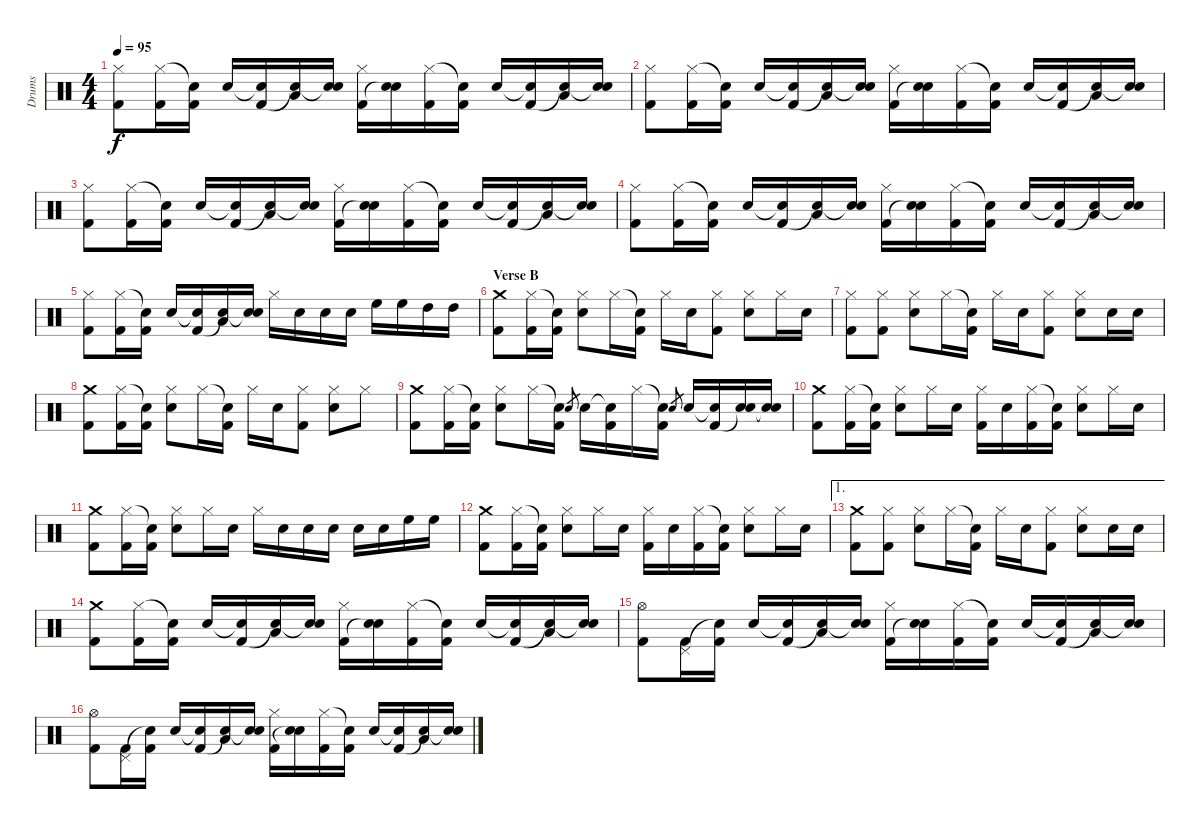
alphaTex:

\track ("Drums" "Drums") {instrument percussion}
\staff {score}
\articulation defaults
\ts (4 4)
\tempo 95
\clef neutral
\ks c
("Hi-Hat (closed)" "Kick (hit) 2").8{dy f} ("Hi-Hat (closed)" "Kick (hit) 2").16 ("Snare (hit)"{t} "Kick (hit) 2").16 "Electric Snare (hit)".16 ("Snare (hit)"{t} "Kick (hit) 2").16 ("Low Tom (hit)" "Snare (hit)"{t}).16 ("Electric Snare (hit)" "Snare (hit)"{t}).16 ("Hi-Hat (closed)" "Kick (hit) 2").16 ("Electric Snare (hit)" "Snare (hit)"{t}).16 ("Hi-Hat (closed)" "Kick (hit) 2").16 ("Snare (hit)"{t} "Kick (hit) 2").16 "Electric Snare (hit)".16 ("Snare (hit)"{t} "Kick (hit) 2").16 ("Low Tom (hit)" "Snare (hit)"{t}).16 ("Electric Snare (hit)" "Snare (hit)"{t}).16 |
("Hi-Hat (closed)" "Kick (hit) 2").8 ("Hi-Hat (closed)" "Kick (hit) 2").16 ("Snare (hit)"{t} "Kick (hit) 2").16 "Electric Snare (hit)".16 ("Snare (hit)"{t} "Kick (hit) 2").16 ("Low Tom (hit)" "Snare (hit)"{t}).16 ("Electric Snare (hit)" "Snare (hit)"{t}).16 ("Hi-Hat (closed)" "Kick (hit) 2").16 ("Electric Snare (hit)" "Snare (hit)"{t}).16 ("Hi-Hat (closed)" "Kick (hit) 2").16 ("Snare (hit)"{t} "Kick (hit) 2").16 "Electric Snare (hit)".16 ("Snare (hit)"{t} "Kick (hit) 2").16 ("Low Tom (hit)" "Snare (hit)"{t}).16 ("Electric Snare (hit)" "Snare (hit)"{t}).16 |
("Hi-Hat (closed)" "Kick (hit) 2").8 ("Hi-Hat (closed)" "Kick (hit) 2").16 ("Snare (hit)"{t} "Kick (hit) 2").16 "Electric Snare (hit)".16 ("Snare (hit)"{t} "Kick (hit) 2").16 ("Low Tom (hit)" "Snare (hit)"{t}).16 ("Electric Snare (hit)" "Snare (hit)"{t}).16 ("Hi-Hat (closed)" "Kick (hit) 2").16 ("Electric Snare (hit)" "Snare (hit)"{t}).16 ("Hi-Hat (closed)" "Kick (hit) 2").16 ("Snare (hit)"{t} "Kick (hit) 2").16 "Electric Snare (hit)".16 ("Snare (hit)"{t} "Kick (hit) 2").16 ("Low Tom (hit)" "Snare (hit)"{t}).16 ("Electric Snare (hit)" "Snare (hit)"{t}).16 |
("Hi-Hat (closed)" "Kick (hit) 2").8 ("Hi-Hat (closed)" "Kick (hit) 2").16 ("Snare (hit)"{t} "Kick (hit) 2").16 "Electric Snare (hit)".16 ("Snare (hit)"{t} "Kick (hit) 2").16 ("Low Tom (hit)" "Snare (hit)"{t}).16 ("Electric Snare (hit)" "Snare (hit)"{t}).16 ("Hi-Hat (closed)" "Kick (hit) 2").16 ("Electric Snare (hit)" "Snare (hit)"{t}).16 ("Hi-Hat (closed)" "Kick (hit) 2").16 ("Snare (hit)"{t} "Kick (hit) 2").16 "Electric Snare (hit)".16 ("Snare (hit)"{t} "Kick (hit) 2").16 ("Low Tom (hit)" "Snare (hit)"{t}).16 ("Electric Snare (hit)" "Snare (hit)"{t}).16 |
("Hi-Hat (closed)" "Kick (hit) 2").8 ("Hi-Hat (closed)" "Kick (hit) 2").16 ("Snare (hit)"{t} "Kick (hit) 2").16 "Electric Snare (hit)".16 ("Snare (hit)"{t} "Kick (hit) 2").16 ("Low Tom (hit)" "Snare (hit)"{t}).16 ("Electric Snare (hit)" "Snare (hit)"{t}).16 "Hi-Hat (closed)".16 "Electric Snare (hit)".16 "Electric Snare (hit)".16 "Electric Snare (hit)".16 "High Floor Tom (hit)".16 "High Floor Tom (hit)".16 "High Tom (hit)".16 "High Tom (hit)".16 |
\section ("" "Verse B")
("Crash medium (hit)" "Kick (hit) 2").8 ("Hi-Hat (closed)" "Kick (hit) 2").16 ("Snare (hit)"{t} "Kick (hit) 2").16 ("Hi-Hat (closed)" "Electric Snare (hit)").8 "Hi-Hat (closed)".16 ("Snare (hit)"{t} "Kick (hit) 2").16 "Hi-Hat (closed)".16 "Electric Snare (hit)".16 ("Hi-Hat (closed)" "Kick (hit) 2").8 ("Hi-Hat (closed)" "Electric Snare (hit)").8 "Hi-Hat (closed)".16 "Electric Snare (hit)".16 |
("Hi-Hat (closed)" "Kick (hit) 2").8 ("Hi-Hat (closed)" "Kick (hit) 2").8 ("Hi-Hat (closed)" "Electric Snare (hit)").8 "Hi-Hat (closed)".16 ("Snare (hit)"{t} "Kick (hit) 2").16 "Hi-Hat (closed)".16 "Electric Snare (hit)".16 ("Hi-Hat (closed)" "Kick (hit) 2").8 ("Hi-Hat (closed)" "Electric Snare (hit)").8 "Electric Snare (hit)".16 "Electric Snare (hit)".16 |
("Crash medium (hit)" "Kick (hit) 2").8 ("Hi-Hat (closed)" "Kick (hit) 2").16 ("Snare (hit)"{t} "Kick (hit) 2").16 ("Hi-Hat (closed)" "Electric Snare (hit)").8 "Hi-Hat (closed)".16 ("Snare (hit)"{t} "Kick (hit) 2").16 "Hi-Hat (closed)".16 "Electric Snare (hit)".16 ("Hi-Hat (closed)" "Kick (hit) 2").8 ("Hi-Hat (closed)" "Electric Snare (hit)").8 "Hi-Hat (closed)".8 |
("Crash medium (hit)" "Kick (hit) 2").8 ("Hi-Hat (closed)" "Kick (hit) 2").16 ("Snare (hit)"{t} "Kick (hit) 2").16 ("Hi-Hat (closed)" "Electric Snare (hit)").8 "Hi-Hat (closed)".16 ("Snare (hit)"{t} "Kick (hit) 2").16 "Electric Snare (hit)".8{gr} "Electric Snare (hit)".16 ("Electric Snare (hit)"{t} "Kick (hit) 2").16 "Hi-Hat (closed)".16 ("Snare (hit)"{t} "Kick (hit) 2").16 "Electric Snare (hit)".8{gr} "Electric Snare (hit)".16 ("Snare (hit)"{t} "Kick (hit) 2").16 ("Electric Snare (hit)" "Snare (hit)"{t}).16 ("Electric Snare (hit)" "Snare (hit)"{t}).16 |
("Crash medium (hit)" "Kick (hit) 2").8 ("Hi-Hat (closed)" "Kick (hit) 2").16 ("Snare (hit)"{t} "Kick (hit) 2").16 ("Hi-Hat (closed)" "Electric Snare (hit)").8 "Hi-Hat (closed)".16 "Electric Snare (hit)".16 ("Hi-Hat (closed)" "Kick (hit) 2").16 "Electric Snare (hit)".16 ("Hi-Hat (closed)" "Kick (hit) 2").16 ("Snare (hit)"{t} "Kick (hit) 2").16 ("Hi-Hat (closed)" "Electric Snare (hit)").8 "Hi-Hat (closed)".16 "Electric Snare (hit)".16 |
("Crash medium (hit)" "Kick (hit) 2").8 ("Hi-Hat (closed)" "Kick (hit) 2").16 ("Snare (hit)"{t} "Kick (hit) 2").16 ("Hi-Hat (closed)" "Electric Snare (hit)").8 "Hi-Hat (closed)".16 "Electric Snare (hit)".16 "Hi-Hat (closed)".16 "Electric Snare (hit)".16 "Electric Snare (hit)".16 "Electric Snare (hit)".16 "Electric Snare (hit)".16 "Electric Snare (hit)".16 "High Floor Tom (hit)".16 "High Floor Tom (hit)".16 |
("Crash medium (hit)" "Kick (hit) 2").8 ("Hi-Hat (closed)" "Kick (hit) 2").16 ("Snare (hit)"{t} "Kick (hit) 2").16 ("Hi-Hat (closed)" "Electric Snare (hit)").8 "Hi-Hat (closed)".16 "Electric Snare (hit)".16 ("Hi-Hat (closed)" "Kick (hit) 2").16 "Electric Snare (hit)".16 ("Hi-Hat (closed)" "Kick (hit) 2").16 ("Snare (hit)"{t} "Kick (hit) 2").16 ("Hi-Hat (closed)" "Electric Snare (hit)").8 "Hi-Hat (closed)".16 "Electric Snare (hit)".16 |
\ae 1
("Crash medium (hit)" "Kick (hit) 2").8 ("Hi-Hat (closed)" "Kick (hit) 2").8 ("Hi-Hat (closed)" "Electric Snare (hit)").8 "Hi-Hat (closed)".16 ("Snare (hit)"{t} "Kick (hit) 2").16 "Hi-Hat (closed)".16 "Electric Snare (hit)".16 ("Hi-Hat (closed)" "Kick (hit) 2").8 ("Hi-Hat (closed)" "Electric Snare (hit)").8 "Electric Snare (hit)".16 "Electric Snare (hit)".16 |
("Crash medium (hit)" "Kick (hit) 2").8 ("Hi-Hat (closed)" "Kick (hit) 2").16 ("Snare (hit)"{t} "Kick (hit) 2").16 "Electric Snare (hit)".16 ("Snare (hit)"{t} "Kick (hit) 2").16 ("Low Tom (hit)" "Snare (hit)"{t}).16 ("Electric Snare (hit)" "Snare (hit)"{t}).16 ("Hi-Hat (closed)" "Kick (hit) 2").16 ("Electric Snare (hit)" "Snare (hit)"{t}).16 ("Hi-Hat (closed)" "Kick (hit) 2").16 ("Snare (hit)"{t} "Kick (hit) 2").16 "Electric Snare (hit)".16 ("Snare (hit)"{t} "Kick (hit) 2").16 ("Low Tom (hit)" "Snare (hit)"{t}).16 ("Electric Snare (hit)" "Snare (hit)"{t}).16 |
("Hi-Hat (open)" "Kick (hit) 2").8 ("Pedal Hi-Hat (hit)" "Kick (hit) 2").16 ("Snare (hit)"{t} "Kick (hit) 2").16 "Electric Snare (hit)".16 ("Snare (hit)"{t} "Kick (hit) 2").16 ("Low Tom (hit)" "Snare (hit)"{t}).16 ("Electric Snare (hit)" "Snare (hit)"{t}).16 ("Hi-Hat (closed)" "Kick (hit) 2").16 ("Electric Snare (hit)" "Snare (hit)"{t}).16 ("Hi-Hat (closed)" "Kick (hit) 2").16 ("Snare (hit)"{t} "Kick (hit) 2").16 "Electric Snare (hit)".16 ("Snare (hit)"{t} "Kick (hit) 2").16 ("Low Tom (hit)" "Snare (hit)"{t}).16 ("Electric Snare (hit)" "Snare (hit)"{t}).16 |
("Hi-Hat (open)" "Kick (hit) 2").8 ("Pedal Hi-Hat (hit)" "Kick (hit) 2").16 ("Snare (hit)"{t} "Kick (hit) 2").16 "Electric Snare (hit)".16 ("Snare (hit)"{t} "Kick (hit) 2").16 ("Low Tom (hit)" "Snare (hit)"{t}).16 ("Electric Snare (hit)" "Snare (hit)"{t}).16 ("Hi-Hat (closed)" "Kick (hit) 2").16 ("Electric Snare (hit)" "Snare (hit)"{t}).16 ("Hi-Hat (closed)" "Kick (hit) 2").16 ("Snare (hit)"{t} "Kick (hit) 2").16 "Electric Snare (hit)".16 ("Snare (hit)"{t} "Kick (hit) 2").16 ("Low Tom (hit)" "Snare (hit)"{t}).16 ("Electric Snare (hit)" "Snare (hit)"{t}).16
